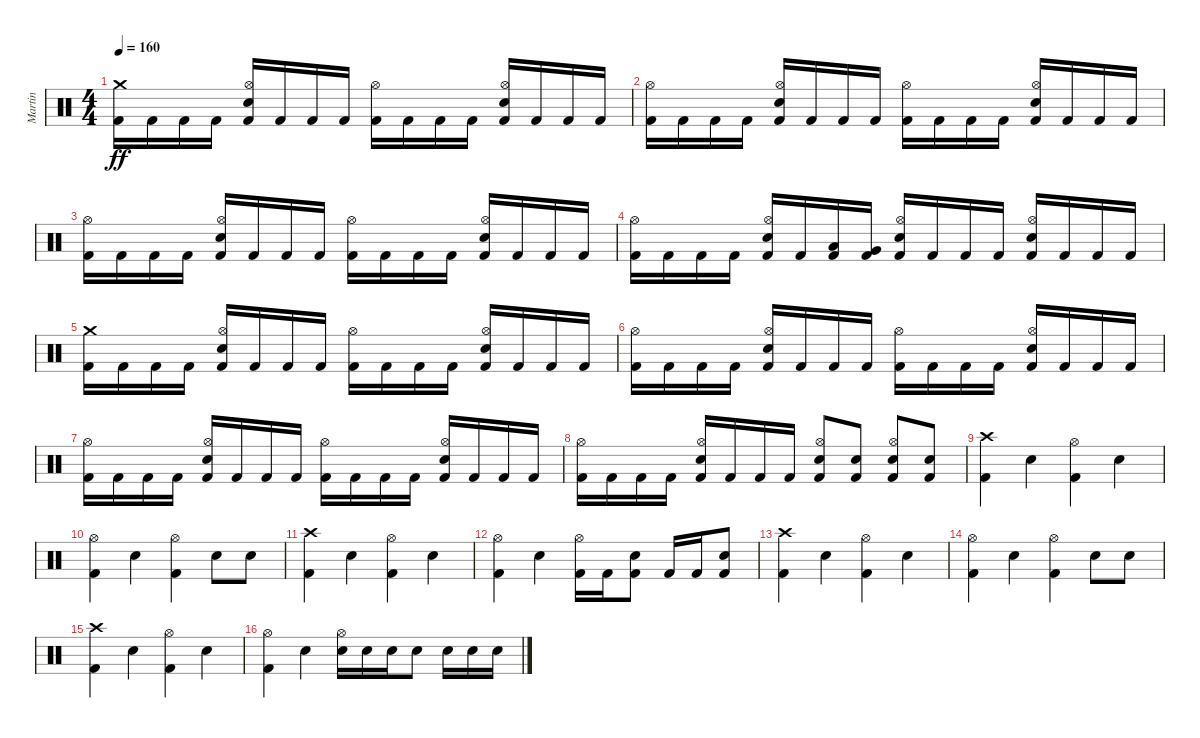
\track ("Martin" "Martin") {instrument percussion}
\staff {score}
\articulation defaults
\ts (4 4)
\tempo 160
\clef neutral
\ks c
("Crash medium (hit)" "Kick (hit) 2").16{dy ff} "Kick (hit) 2".16 "Kick (hit) 2".16 "Kick (hit) 2".16 ("Hi-Hat (open)" "Electric Snare (hit)" "Kick (hit) 2").16 "Kick (hit) 2".16 "Kick (hit) 2".16 "Kick (hit) 2".16 ("Hi-Hat (open)" "Kick (hit) 2").16 "Kick (hit) 2".16 "Kick (hit) 2".16 "Kick (hit) 2".16 ("Hi-Hat (open)" "Electric Snare (hit)" "Kick (hit) 2").16 "Kick (hit) 2".16 "Kick (hit) 2".16 "Kick (hit) 2".16 |
("Hi-Hat (open)" "Kick (hit) 2").16 "Kick (hit) 2".16 "Kick (hit) 2".16 "Kick (hit) 2".16 ("Hi-Hat (open)" "Electric Snare (hit)" "Kick (hit) 2").16 "Kick (hit) 2".16 "Kick (hit) 2".16 "Kick (hit) 2".16 ("Hi-Hat (open)" "Kick (hit) 2").16 "Kick (hit) 2".16 "Kick (hit) 2".16 "Kick (hit) 2".16 ("Hi-Hat (open)" "Electric Snare (hit)" "Kick (hit) 2").16 "Kick (hit) 2".16 "Kick (hit) 2".16 "Kick (hit) 2".16 |
("Hi-Hat (open)" "Kick (hit) 2").16 "Kick (hit) 2".16 "Kick (hit) 2".16 "Kick (hit) 2".16 ("Hi-Hat (open)" "Electric Snare (hit)" "Kick (hit) 2").16 "Kick (hit) 2".16 "Kick (hit) 2".16 "Kick (hit) 2".16 ("Hi-Hat (open)" "Kick (hit) 2").16 "Kick (hit) 2".16 "Kick (hit) 2".16 "Kick (hit) 2".16 ("Hi-Hat (open)" "Electric Snare (hit)" "Kick (hit) 2").16 "Kick (hit) 2".16 "Kick (hit) 2".16 "Kick (hit) 2".16 |
("Hi-Hat (open)" "Kick (hit) 2").16 "Kick (hit) 2".16 "Kick (hit) 2".16 "Kick (hit) 2".16 ("Hi-Hat (open)" "Electric Snare (hit)" "Kick (hit) 2").16 "Kick (hit) 2".16 ("Low Floor Tom (hit)" "Kick (hit) 2").16 ("Very Low Tom (hit)" "Kick (hit) 2").16 ("Hi-Hat (open)" "Electric Snare (hit)" "Kick (hit) 2").16 "Kick (hit) 2".16 "Kick (hit) 2".16 "Kick (hit) 2".16 ("Hi-Hat (open)" "Electric Snare (hit)" "Kick (hit) 2").16 "Kick (hit) 2".16 "Kick (hit) 2".16 "Kick (hit) 2".16 |
("Crash medium (hit)" "Kick (hit) 2").16 "Kick (hit) 2".16 "Kick (hit) 2".16 "Kick (hit) 2".16 ("Hi-Hat (open)" "Electric Snare (hit)" "Kick (hit) 2").16 "Kick (hit) 2".16 "Kick (hit) 2".16 "Kick (hit) 2".16 ("Hi-Hat (open)" "Kick (hit) 2").16 "Kick (hit) 2".16 "Kick (hit) 2".16 "Kick (hit) 2".16 ("Hi-Hat (open)" "Electric Snare (hit)" "Kick (hit) 2").16 "Kick (hit) 2".16 "Kick (hit) 2".16 "Kick (hit) 2".16 |
("Hi-Hat (open)" "Kick (hit) 2").16 "Kick (hit) 2".16 "Kick (hit) 2".16 "Kick (hit) 2".16 ("Hi-Hat (open)" "Electric Snare (hit)" "Kick (hit) 2").16 "Kick (hit) 2".16 "Kick (hit) 2".16 "Kick (hit) 2".16 ("Hi-Hat (open)" "Kick (hit) 2").16 "Kick (hit) 2".16 "Kick (hit) 2".16 "Kick (hit) 2".16 ("Hi-Hat (open)" "Electric Snare (hit)" "Kick (hit) 2").16 "Kick (hit) 2".16 "Kick (hit) 2".16 "Kick (hit) 2".16 |
("Hi-Hat (open)" "Kick (hit) 2").16 "Kick (hit) 2".16 "Kick (hit) 2".16 "Kick (hit) 2".16 ("Hi-Hat (open)" "Electric Snare (hit)" "Kick (hit) 2").16 "Kick (hit) 2".16 "Kick (hit) 2".16 "Kick (hit) 2".16 ("Hi-Hat (open)" "Kick (hit) 2").16 "Kick (hit) 2".16 "Kick (hit) 2".16 "Kick (hit) 2".16 ("Hi-Hat (open)" "Electric Snare (hit)" "Kick (hit) 2").16 "Kick (hit) 2".16 "Kick (hit) 2".16 "Kick (hit) 2".16 |
("Hi-Hat (open)" "Kick (hit) 2").16 "Kick (hit) 2".16 "Kick (hit) 2".16 "Kick (hit) 2".16 ("Hi-Hat (open)" "Electric Snare (hit)" "Kick (hit) 2").16 "Kick (hit) 2".16 "Kick (hit) 2".16 "Kick (hit) 2".16 ("Hi-Hat (open)" "Electric Snare (hit)" "Kick (hit) 2").8 ("Electric Snare (hit)" "Kick (hit) 2").8 ("Hi-Hat (open)" "Electric Snare (hit)" "Kick (hit) 2").8 ("Electric Snare (hit)" "Kick (hit) 2").8 |
("Crash high (hit)" "Kick (hit) 2").4 "Electric Snare (hit)".4 ("Hi-Hat (open)" "Kick (hit) 2").4 "Electric Snare (hit)".4 |
("Hi-Hat (open)" "Kick (hit) 2").4 "Electric Snare (hit)".4 ("Hi-Hat (open)" "Kick (hit) 2").4 "Electric Snare (hit)".8 "Electric Snare (hit)".8 |
("Crash high (hit)" "Kick (hit) 2").4 "Electric Snare (hit)".4 ("Hi-Hat (open)" "Kick (hit) 2").4 "Electric Snare (hit)".4 |
("Hi-Hat (open)" "Kick (hit) 2").4 "Electric Snare (hit)".4 ("Hi-Hat (open)" "Kick (hit) 2").16 "Kick (hit) 2".16 ("Electric Snare (hit)" "Kick (hit) 2").8 "Kick (hit) 2".16 "Kick (hit) 2".16 ("Electric Snare (hit)" "Kick (hit) 2").8 |
("Crash high (hit)" "Kick (hit) 2").4 "Electric Snare (hit)".4 ("Hi-Hat (open)" "Kick (hit) 2").4 "Electric Snare (hit)".4 |
("Hi-Hat (open)" "Kick (hit) 2").4 "Electric Snare (hit)".4 ("Hi-Hat (open)" "Kick (hit) 2").4 "Electric Snare (hit)".8 "Electric Snare (hit)".8 |
("Crash high (hit)" "Kick (hit) 2").4 "Electric Snare (hit)".4 ("Hi-Hat (open)" "Kick (hit) 2").4 "Electric Snare (hit)".4 |
("Hi-Hat (open)" "Kick (hit) 2").4 "Electric Snare (hit)".4 ("Hi-Hat (open)" "Electric Snare (hit)").16 "Electric Snare (hit)".16 "Electric Snare (hit)".16 "Electric Snare (hit)".8 "Electric Snare (hit)".16 "Electric Snare (hit)".16 "Electric Snare (hit)".16
